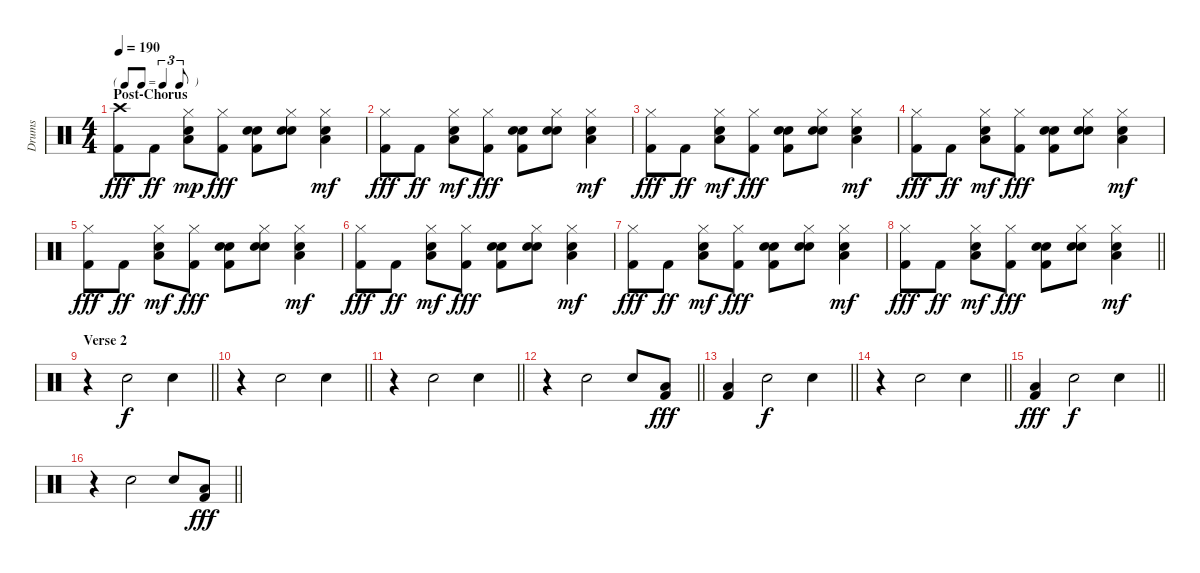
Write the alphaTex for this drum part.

\track ("Drums" "Drums") {instrument percussion}
\staff {score}
\articulation defaults
\ts (4 4)
\tf triplet8th
\section ("" "Post-Chorus")
\tempo 190
\clef neutral
\ks c
("Crash high (hit)" "Kick (hit) 2").8{dy fff} "Kick (hit) 2".8{dy ff} ("Hi-Hat (closed)" "Low Tom (hit)" "Hand Clap (hit)").8{dy mp} ("Hi-Hat (closed)" "Kick (hit) 2").8{dy fff} ("Kick (hit) 2" "Hand Clap (hit)" "Hand Clap (hit)").8 ("Hi-Hat (closed)" "Hand Clap (hit)" "Hand Clap (hit)").8 ("Hi-Hat (closed)" "Low Tom (hit)" "Hand Clap (hit)").4{dy mf} |
("Hi-Hat (closed)" "Kick (hit) 2").8{dy fff} "Kick (hit) 2".8{dy ff} ("Hi-Hat (closed)" "Low Tom (hit)" "Hand Clap (hit)").8{dy mf} ("Hi-Hat (closed)" "Kick (hit) 2").8{dy fff} ("Kick (hit) 2" "Hand Clap (hit)" "Hand Clap (hit)").8 ("Hi-Hat (closed)" "Hand Clap (hit)" "Hand Clap (hit)").8 ("Hi-Hat (closed)" "Low Tom (hit)" "Hand Clap (hit)").4{dy mf} |
("Hi-Hat (closed)" "Kick (hit) 2").8{dy fff} "Kick (hit) 2".8{dy ff} ("Hi-Hat (closed)" "Low Tom (hit)" "Hand Clap (hit)").8{dy mf} ("Hi-Hat (closed)" "Kick (hit) 2").8{dy fff} ("Kick (hit) 2" "Hand Clap (hit)" "Hand Clap (hit)").8 ("Hi-Hat (closed)" "Hand Clap (hit)" "Hand Clap (hit)").8 ("Hi-Hat (closed)" "Low Tom (hit)" "Hand Clap (hit)").4{dy mf} |
("Hi-Hat (closed)" "Kick (hit) 2").8{dy fff} "Kick (hit) 2".8{dy ff} ("Hi-Hat (closed)" "Low Tom (hit)" "Hand Clap (hit)").8{dy mf} ("Hi-Hat (closed)" "Kick (hit) 2").8{dy fff} ("Kick (hit) 2" "Hand Clap (hit)" "Hand Clap (hit)").8 ("Hi-Hat (closed)" "Hand Clap (hit)" "Hand Clap (hit)").8 ("Hi-Hat (closed)" "Low Tom (hit)" "Hand Clap (hit)").4{dy mf} |
("Hi-Hat (closed)" "Kick (hit) 2").8{dy fff} "Kick (hit) 2".8{dy ff} ("Hi-Hat (closed)" "Low Tom (hit)" "Hand Clap (hit)").8{dy mf} ("Hi-Hat (closed)" "Kick (hit) 2").8{dy fff} ("Kick (hit) 2" "Hand Clap (hit)" "Hand Clap (hit)").8 ("Hi-Hat (closed)" "Hand Clap (hit)" "Hand Clap (hit)").8 ("Hi-Hat (closed)" "Low Tom (hit)" "Hand Clap (hit)").4{dy mf} |
("Hi-Hat (closed)" "Kick (hit) 2").8{dy fff} "Kick (hit) 2".8{dy ff} ("Hi-Hat (closed)" "Low Tom (hit)" "Hand Clap (hit)").8{dy mf} ("Hi-Hat (closed)" "Kick (hit) 2").8{dy fff} ("Kick (hit) 2" "Hand Clap (hit)" "Hand Clap (hit)").8 ("Hi-Hat (closed)" "Hand Clap (hit)" "Hand Clap (hit)").8 ("Hi-Hat (closed)" "Low Tom (hit)" "Hand Clap (hit)").4{dy mf} |
("Hi-Hat (closed)" "Kick (hit) 2").8{dy fff} "Kick (hit) 2".8{dy ff} ("Hi-Hat (closed)" "Low Tom (hit)" "Hand Clap (hit)").8{dy mf} ("Hi-Hat (closed)" "Kick (hit) 2").8{dy fff} ("Kick (hit) 2" "Hand Clap (hit)" "Hand Clap (hit)").8 ("Hi-Hat (closed)" "Hand Clap (hit)" "Hand Clap (hit)").8 ("Hi-Hat (closed)" "Low Tom (hit)" "Hand Clap (hit)").4{dy mf} |
\barLineRight lightlight
("Hi-Hat (closed)" "Kick (hit) 2").8{dy fff} "Kick (hit) 2".8{dy ff} ("Hi-Hat (closed)" "Low Tom (hit)" "Hand Clap (hit)").8{dy mf} ("Hi-Hat (closed)" "Kick (hit) 2").8{dy fff} ("Kick (hit) 2" "Hand Clap (hit)" "Hand Clap (hit)").8 ("Hi-Hat (closed)" "Hand Clap (hit)" "Hand Clap (hit)").8 ("Hi-Hat (closed)" "Low Tom (hit)" "Hand Clap (hit)").4{dy mf} |
\section ("" "Verse 2")
\barLineRight lightlight
r.4 "Hand Clap (hit)".2{dy f} "Hand Clap (hit)".4 |
\barLineRight lightlight
r.4 "Hand Clap (hit)".2 "Hand Clap (hit)".4 |
\barLineRight lightlight
r.4 "Hand Clap (hit)".2 "Hand Clap (hit)".4 |
\barLineRight lightlight
r.4 "Hand Clap (hit)".2 "Hand Clap (hit)".8 ("Low Tom (hit)" "Kick (hit) 2").8{dy fff} |
\barLineRight lightlight
("Low Tom (hit)" "Kick (hit) 2").4 "Hand Clap (hit)".2{dy f} "Hand Clap (hit)".4 |
\barLineRight lightlight
r.4 "Hand Clap (hit)".2 "Hand Clap (hit)".4 |
\barLineRight lightlight
("Low Tom (hit)" "Kick (hit) 2").4{dy fff} "Hand Clap (hit)".2{dy f} "Hand Clap (hit)".4 |
\barLineRight lightlight
r.4 "Hand Clap (hit)".2 "Hand Clap (hit)".8 ("Low Tom (hit)" "Kick (hit) 2").8{dy fff}
